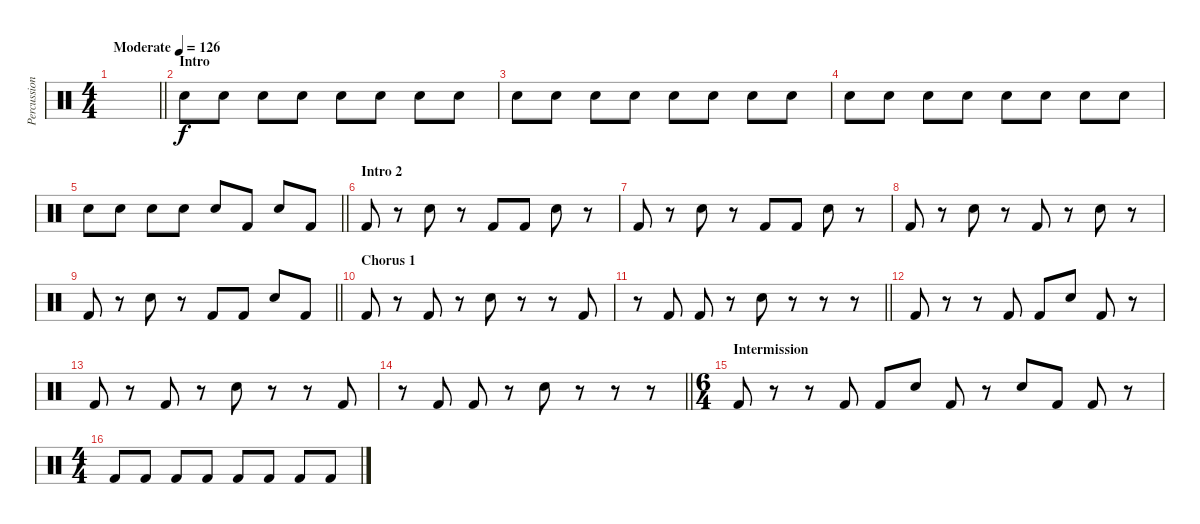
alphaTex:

\track ("Percussion" "Percussion") {instrument percussion}
\staff {score}
\articulation defaults
\ts (4 4)
\tempo (126 "Moderate")
\clef neutral
\barLineRight lightlight
\ks c
|
\section ("" "Intro")
"Snare (hit) 2".8 "Snare (hit) 2".8 "Snare (hit) 2".8 "Snare (hit) 2".8 "Snare (hit) 2".8 "Snare (hit) 2".8 "Snare (hit) 2".8 "Snare (hit) 2".8 |
"Snare (hit) 2".8 "Snare (hit) 2".8 "Snare (hit) 2".8 "Snare (hit) 2".8 "Snare (hit) 2".8 "Snare (hit) 2".8 "Snare (hit) 2".8 "Snare (hit) 2".8 |
"Snare (hit) 2".8 "Snare (hit) 2".8 "Snare (hit) 2".8 "Snare (hit) 2".8 "Snare (hit) 2".8 "Snare (hit) 2".8 "Snare (hit) 2".8 "Snare (hit) 2".8 |
\barLineRight lightlight "Snare (hit) 2".8 "Snare (hit) 2".8 "Snare (hit) 2".8 "Snare (hit) 2".8 "Snare (hit) 2".8 "Kick (hit) 2".8 "Snare (hit) 2".8 "Kick (hit) 2".8
|
\section ("" "Intro 2")
"Kick (hit) 2".8 r.8 "Snare (hit) 2".8 r.8 "Kick (hit) 2".8 "Kick (hit) 2".8 "Snare (hit) 2".8 r.8 |
"Kick (hit) 2".8 r.8 "Snare (hit) 2".8 r.8 "Kick (hit) 2".8 "Kick (hit) 2".8 "Snare (hit) 2".8 r.8 |
"Kick (hit) 2".8 r.8 "Snare (hit) 2".8 r.8 "Kick (hit) 2".8 r.8 "Snare (hit) 2".8 r.8 |
\barLineRight lightlight "Kick (hit) 2".8
r.8 "Snare (hit) 2".8 r.8 "Kick (hit) 2".8 "Kick (hit) 2".8 "Snare (hit) 2".8 "Kick (hit) 2".8 |
\section ("" "Chorus 1")
"Kick (hit) 2".8 r.8 "Kick (hit) 2".8 r.8 "Snare (hit) 2".8 r.8 r.8 "Kick (hit) 2".8 |
\barLineRight lightlight
r.8 "Kick (hit) 2".8 "Kick (hit) 2".8 r.8 "Snare (hit) 2".8 r.8 r.8 r.8 |
"Kick (hit) 2".8 r.8 r.8 "Kick (hit) 2".8 "Kick (hit) 2".8 "Snare (hit) 2".8 "Kick (hit) 2".8 r.8 |
"Kick (hit) 2".8 r.8 "Kick (hit) 2".8 r.8 "Snare (hit) 2".8 r.8 r.8 "Kick (hit) 2".8 |
\barLineRight lightlight
r.8 "Kick (hit) 2".8 "Kick (hit) 2".8 r.8 "Snare (hit) 2".8 r.8 r.8 r.8 |
\ts (6 4)
\section ("" "Intermission")
"Kick (hit) 2".8 r.8 r.8 "Kick (hit) 2".8 "Kick (hit) 2".8 "Snare (hit) 2".8 "Kick (hit) 2".8 r.8 "Snare (hit) 2".8 "Kick (hit) 2".8 "Kick (hit) 2".8 r.8 |
\ts (4 4)
"Kick (hit) 2".8 "Kick (hit) 2".8 "Kick (hit) 2".8 "Kick (hit) 2".8 "Kick (hit) 2".8 "Kick (hit) 2".8 "Kick (hit) 2".8 "Kick (hit) 2".8
